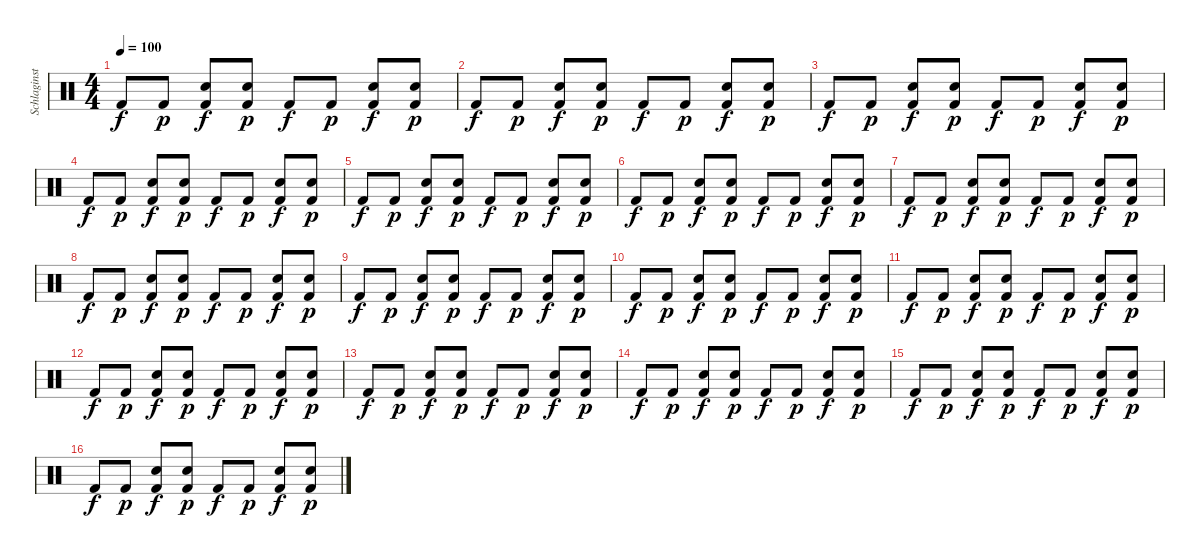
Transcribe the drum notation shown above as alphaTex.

\track ("Schlaginstrumente - Auswahl" "Schlaginst") {instrument percussion}
\staff {score}
\articulation defaults
\ts (4 4)
\tempo 100
\clef neutral
\ks c "Kick (hit) 2".8{dy f} "Kick (hit) 2".8{dy p}
("Electric Snare (hit)" "Kick (hit) 2").8{dy f} ("Electric Snare (hit)" "Kick (hit) 2").8{dy p} "Kick (hit) 2".8{dy f} "Kick (hit) 2".8{dy p} ("Electric Snare (hit)" "Kick (hit) 2").8{dy f} ("Electric Snare (hit)" "Kick (hit) 2").8{dy p} |
"Kick (hit) 2".8{dy f} "Kick (hit) 2".8{dy p} ("Electric Snare (hit)" "Kick (hit) 2").8{dy f} ("Electric Snare (hit)" "Kick (hit) 2").8{dy p} "Kick (hit) 2".8{dy f} "Kick (hit) 2".8{dy p} ("Electric Snare (hit)" "Kick (hit) 2").8{dy f} ("Electric Snare (hit)" "Kick (hit) 2").8{dy p} |
"Kick (hit) 2".8{dy f} "Kick (hit) 2".8{dy p} ("Electric Snare (hit)" "Kick (hit) 2").8{dy f} ("Electric Snare (hit)" "Kick (hit) 2").8{dy p} "Kick (hit) 2".8{dy f} "Kick (hit) 2".8{dy p} ("Electric Snare (hit)" "Kick (hit) 2").8{dy f} ("Electric Snare (hit)" "Kick (hit) 2").8{dy p} |
"Kick (hit) 2".8{dy f} "Kick (hit) 2".8{dy p} ("Electric Snare (hit)" "Kick (hit) 2").8{dy f} ("Electric Snare (hit)" "Kick (hit) 2").8{dy p} "Kick (hit) 2".8{dy f} "Kick (hit) 2".8{dy p} ("Electric Snare (hit)" "Kick (hit) 2").8{dy f} ("Electric Snare (hit)" "Kick (hit) 2").8{dy p} |
"Kick (hit) 2".8{dy f} "Kick (hit) 2".8{dy p} ("Electric Snare (hit)" "Kick (hit) 2").8{dy f} ("Electric Snare (hit)" "Kick (hit) 2").8{dy p} "Kick (hit) 2".8{dy f} "Kick (hit) 2".8{dy p} ("Electric Snare (hit)" "Kick (hit) 2").8{dy f} ("Electric Snare (hit)" "Kick (hit) 2").8{dy p} |
"Kick (hit) 2".8{dy f} "Kick (hit) 2".8{dy p} ("Electric Snare (hit)" "Kick (hit) 2").8{dy f} ("Electric Snare (hit)" "Kick (hit) 2").8{dy p} "Kick (hit) 2".8{dy f} "Kick (hit) 2".8{dy p} ("Electric Snare (hit)" "Kick (hit) 2").8{dy f} ("Electric Snare (hit)" "Kick (hit) 2").8{dy p} |
"Kick (hit) 2".8{dy f} "Kick (hit) 2".8{dy p} ("Electric Snare (hit)" "Kick (hit) 2").8{dy f} ("Electric Snare (hit)" "Kick (hit) 2").8{dy p} "Kick (hit) 2".8{dy f} "Kick (hit) 2".8{dy p} ("Electric Snare (hit)" "Kick (hit) 2").8{dy f} ("Electric Snare (hit)" "Kick (hit) 2").8{dy p} |
"Kick (hit) 2".8{dy f} "Kick (hit) 2".8{dy p} ("Electric Snare (hit)" "Kick (hit) 2").8{dy f} ("Electric Snare (hit)" "Kick (hit) 2").8{dy p} "Kick (hit) 2".8{dy f} "Kick (hit) 2".8{dy p} ("Electric Snare (hit)" "Kick (hit) 2").8{dy f} ("Electric Snare (hit)" "Kick (hit) 2").8{dy p} |
"Kick (hit) 2".8{dy f} "Kick (hit) 2".8{dy p} ("Electric Snare (hit)" "Kick (hit) 2").8{dy f} ("Electric Snare (hit)" "Kick (hit) 2").8{dy p} "Kick (hit) 2".8{dy f} "Kick (hit) 2".8{dy p} ("Electric Snare (hit)" "Kick (hit) 2").8{dy f} ("Electric Snare (hit)" "Kick (hit) 2").8{dy p} |
"Kick (hit) 2".8{dy f} "Kick (hit) 2".8{dy p} ("Electric Snare (hit)" "Kick (hit) 2").8{dy f} ("Electric Snare (hit)" "Kick (hit) 2").8{dy p} "Kick (hit) 2".8{dy f} "Kick (hit) 2".8{dy p} ("Electric Snare (hit)" "Kick (hit) 2").8{dy f} ("Electric Snare (hit)" "Kick (hit) 2").8{dy p} |
"Kick (hit) 2".8{dy f} "Kick (hit) 2".8{dy p} ("Electric Snare (hit)" "Kick (hit) 2").8{dy f} ("Electric Snare (hit)" "Kick (hit) 2").8{dy p} "Kick (hit) 2".8{dy f} "Kick (hit) 2".8{dy p} ("Electric Snare (hit)" "Kick (hit) 2").8{dy f} ("Electric Snare (hit)" "Kick (hit) 2").8{dy p} |
"Kick (hit) 2".8{dy f} "Kick (hit) 2".8{dy p} ("Electric Snare (hit)" "Kick (hit) 2").8{dy f} ("Electric Snare (hit)" "Kick (hit) 2").8{dy p} "Kick (hit) 2".8{dy f} "Kick (hit) 2".8{dy p} ("Electric Snare (hit)" "Kick (hit) 2").8{dy f} ("Electric Snare (hit)" "Kick (hit) 2").8{dy p} |
"Kick (hit) 2".8{dy f} "Kick (hit) 2".8{dy p} ("Electric Snare (hit)" "Kick (hit) 2").8{dy f} ("Electric Snare (hit)" "Kick (hit) 2").8{dy p} "Kick (hit) 2".8{dy f} "Kick (hit) 2".8{dy p} ("Electric Snare (hit)" "Kick (hit) 2").8{dy f} ("Electric Snare (hit)" "Kick (hit) 2").8{dy p} |
"Kick (hit) 2".8{dy f} "Kick (hit) 2".8{dy p} ("Electric Snare (hit)" "Kick (hit) 2").8{dy f} ("Electric Snare (hit)" "Kick (hit) 2").8{dy p} "Kick (hit) 2".8{dy f} "Kick (hit) 2".8{dy p} ("Electric Snare (hit)" "Kick (hit) 2").8{dy f} ("Electric Snare (hit)" "Kick (hit) 2").8{dy p} |
"Kick (hit) 2".8{dy f} "Kick (hit) 2".8{dy p} ("Electric Snare (hit)" "Kick (hit) 2").8{dy f} ("Electric Snare (hit)" "Kick (hit) 2").8{dy p} "Kick (hit) 2".8{dy f} "Kick (hit) 2".8{dy p} ("Electric Snare (hit)" "Kick (hit) 2").8{dy f} ("Electric Snare (hit)" "Kick (hit) 2").8{dy p} |
"Kick (hit) 2".8{dy f} "Kick (hit) 2".8{dy p} ("Electric Snare (hit)" "Kick (hit) 2").8{dy f} ("Electric Snare (hit)" "Kick (hit) 2").8{dy p} "Kick (hit) 2".8{dy f} "Kick (hit) 2".8{dy p} ("Electric Snare (hit)" "Kick (hit) 2").8{dy f} ("Electric Snare (hit)" "Kick (hit) 2").8{dy p}
